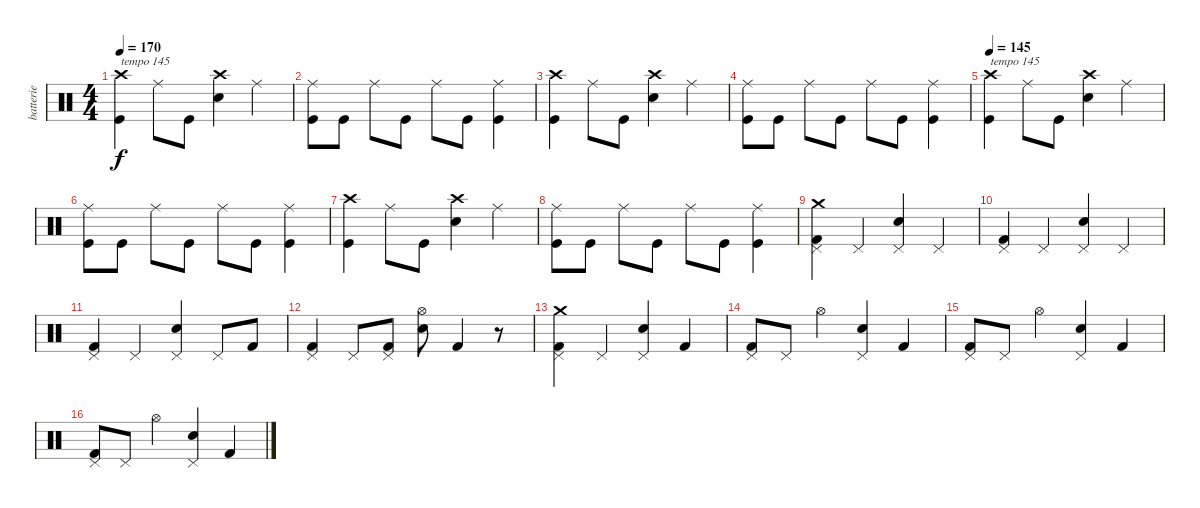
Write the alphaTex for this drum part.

\track ("batterie" "batterie") {instrument percussion}
\staff {score}
\articulation defaults
\ts (4 4)
\tempo 170
\tempo 145
\tempo 170
\clef neutral
\ks c
("Crash high (hit)" "Kick (hit)").4{txt "tempo 145" dy f} "Ride (middle)".8 "Kick (hit)".8 ("Crash high (hit)" "Snare (hit) 2").4 "Ride (middle)".4 |
("Ride (middle)" "Kick (hit)").8 "Kick (hit)".8 "Ride (middle)".8 "Kick (hit)".8 "Ride (middle)".8 "Kick (hit)".8 ("Ride (middle)" "Kick (hit)").4 |
("Crash high (hit)" "Kick (hit)").4 "Ride (middle)".8 "Kick (hit)".8 ("Crash high (hit)" "Snare (hit) 2").4 "Ride (middle)".4 |
("Ride (middle)" "Kick (hit)").8 "Kick (hit)".8 "Ride (middle)".8 "Kick (hit)".8 "Ride (middle)".8 "Kick (hit)".8 ("Ride (middle)" "Kick (hit)").4 |
\tempo 145
("Crash high (hit)" "Kick (hit)").4{txt "tempo 145"} "Ride (middle)".8 "Kick (hit)".8 ("Crash high (hit)" "Snare (hit) 2").4 "Ride (middle)".4 |
("Ride (middle)" "Kick (hit)").8 "Kick (hit)".8 "Ride (middle)".8 "Kick (hit)".8 "Ride (middle)".8 "Kick (hit)".8 ("Ride (middle)" "Kick (hit)").4 |
("Crash high (hit)" "Kick (hit)").4 "Ride (middle)".8 "Kick (hit)".8 ("Crash high (hit)" "Snare (hit) 2").4 "Ride (middle)".4 |
("Ride (middle)" "Kick (hit)").8 "Kick (hit)".8 "Ride (middle)".8 "Kick (hit)".8 "Ride (middle)".8 "Kick (hit)".8 ("Ride (middle)" "Kick (hit)").4 |
("Crash medium (hit)" "Pedal Hi-Hat (hit)" "Kick (hit) 2").4 "Pedal Hi-Hat (hit)".4 ("Pedal Hi-Hat (hit)" "Electric Snare (hit)").4 "Pedal Hi-Hat (hit)".4 |
("Pedal Hi-Hat (hit)" "Kick (hit) 2").4 "Pedal Hi-Hat (hit)".4 ("Pedal Hi-Hat (hit)" "Electric Snare (hit)").4 "Pedal Hi-Hat (hit)".4 |
("Pedal Hi-Hat (hit)" "Kick (hit) 2").4 "Pedal Hi-Hat (hit)".4 ("Pedal Hi-Hat (hit)" "Electric Snare (hit)").4 "Pedal Hi-Hat (hit)".8 "Kick (hit) 2".8 |
("Pedal Hi-Hat (hit)" "Kick (hit) 2").4 "Pedal Hi-Hat (hit)".8 ("Pedal Hi-Hat (hit)" "Kick (hit) 2").8 ("Hi-Hat (open)" "Electric Snare (hit)").8 "Kick (hit) 2".4 r.8 |
("Crash medium (hit)" "Pedal Hi-Hat (hit)" "Kick (hit) 2").4 "Pedal Hi-Hat (hit)".4 ("Pedal Hi-Hat (hit)" "Electric Snare (hit)").4 "Kick (hit) 2".4 |
("Pedal Hi-Hat (hit)" "Kick (hit) 2").8 "Pedal Hi-Hat (hit)".8 "Hi-Hat (open)".4 ("Pedal Hi-Hat (hit)" "Electric Snare (hit)").4 "Kick (hit) 2".4 |
("Pedal Hi-Hat (hit)" "Kick (hit) 2").8 "Pedal Hi-Hat (hit)".8 "Hi-Hat (open)".4 ("Pedal Hi-Hat (hit)" "Electric Snare (hit)").4 "Kick (hit) 2".4 |
("Pedal Hi-Hat (hit)" "Kick (hit) 2").8 "Pedal Hi-Hat (hit)".8 "Hi-Hat (open)".4 ("Pedal Hi-Hat (hit)" "Electric Snare (hit)").4 "Kick (hit) 2".4
